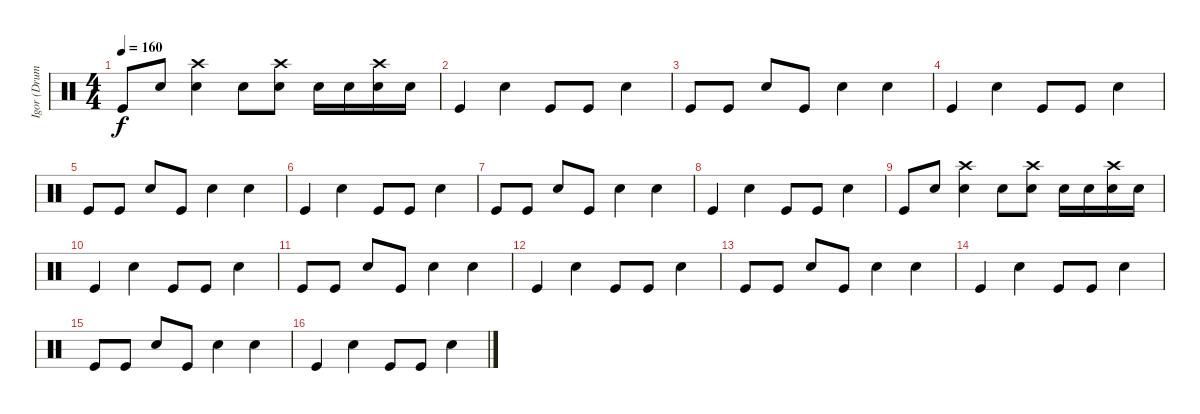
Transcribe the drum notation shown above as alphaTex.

\track ("Igor (Drum- Bass & Snare)" "Igor (Drum") {instrument percussion}
\staff {score}
\articulation defaults
\ts (4 4)
\tempo 160
\clef neutral
\ks c "Kick (hit)".8{dy f} "Snare (hit) 2".8
("Crash high (hit)" "Snare (hit) 2").4 "Snare (hit) 2".8 ("Crash high (hit)" "Snare (hit) 2").8 "Snare (hit) 2".16 "Snare (hit) 2".16 ("Crash high (hit)" "Snare (hit) 2").16 "Snare (hit) 2".16 |
"Kick (hit)".4 "Snare (hit) 2".4 "Kick (hit)".8 "Kick (hit)".8 "Snare (hit) 2".4 |
"Kick (hit)".8 "Kick (hit)".8 "Snare (hit) 2".8 "Kick (hit)".8 "Snare (hit) 2".4 "Snare (hit) 2".4 |
"Kick (hit)".4 "Snare (hit) 2".4 "Kick (hit)".8 "Kick (hit)".8 "Snare (hit) 2".4 |
"Kick (hit)".8 "Kick (hit)".8 "Snare (hit) 2".8 "Kick (hit)".8 "Snare (hit) 2".4 "Snare (hit) 2".4 |
"Kick (hit)".4 "Snare (hit) 2".4 "Kick (hit)".8 "Kick (hit)".8 "Snare (hit) 2".4 |
"Kick (hit)".8 "Kick (hit)".8 "Snare (hit) 2".8 "Kick (hit)".8 "Snare (hit) 2".4 "Snare (hit) 2".4 |
"Kick (hit)".4 "Snare (hit) 2".4 "Kick (hit)".8 "Kick (hit)".8 "Snare (hit) 2".4 |
"Kick (hit)".8 "Snare (hit) 2".8 ("Crash high (hit)" "Snare (hit) 2").4 "Snare (hit) 2".8 ("Crash high (hit)" "Snare (hit) 2").8 "Snare (hit) 2".16 "Snare (hit) 2".16 ("Crash high (hit)" "Snare (hit) 2").16 "Snare (hit) 2".16 |
"Kick (hit)".4 "Snare (hit) 2".4 "Kick (hit)".8 "Kick (hit)".8 "Snare (hit) 2".4 |
"Kick (hit)".8 "Kick (hit)".8 "Snare (hit) 2".8 "Kick (hit)".8 "Snare (hit) 2".4 "Snare (hit) 2".4 |
"Kick (hit)".4 "Snare (hit) 2".4 "Kick (hit)".8 "Kick (hit)".8 "Snare (hit) 2".4 |
"Kick (hit)".8 "Kick (hit)".8 "Snare (hit) 2".8 "Kick (hit)".8 "Snare (hit) 2".4 "Snare (hit) 2".4 |
"Kick (hit)".4 "Snare (hit) 2".4 "Kick (hit)".8 "Kick (hit)".8 "Snare (hit) 2".4 |
"Kick (hit)".8 "Kick (hit)".8 "Snare (hit) 2".8 "Kick (hit)".8 "Snare (hit) 2".4 "Snare (hit) 2".4 |
"Kick (hit)".4 "Snare (hit) 2".4 "Kick (hit)".8 "Kick (hit)".8 "Snare (hit) 2".4
